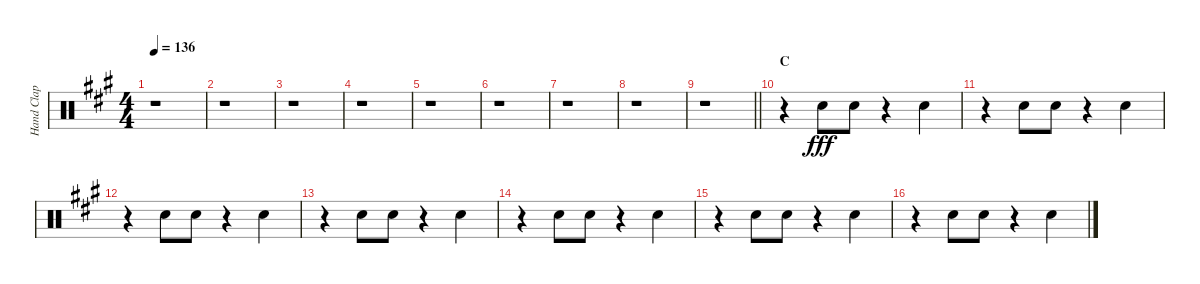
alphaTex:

\track ("Hand Clap" "Hand Clap") {instrument percussion}
\staff {score}
\articulation defaults
\ts (4 4)
\tempo 136
\clef neutral
\ks a
r.1{dy fff} |
r.1 |
r.1 |
r.1 |
r.1 |
r.1 |
r.1 |
r.1 |
\barLineRight lightlight
r.1 |
\section ("" "C")
r.4 "Hand Clap (hit)".8 "Hand Clap (hit)".8 r.4 "Hand Clap (hit)".4 |
r.4 "Hand Clap (hit)".8 "Hand Clap (hit)".8 r.4 "Hand Clap (hit)".4 |
r.4 "Hand Clap (hit)".8 "Hand Clap (hit)".8 r.4 "Hand Clap (hit)".4 |
r.4 "Hand Clap (hit)".8 "Hand Clap (hit)".8 r.4 "Hand Clap (hit)".4 |
r.4 "Hand Clap (hit)".8 "Hand Clap (hit)".8 r.4 "Hand Clap (hit)".4 |
r.4 "Hand Clap (hit)".8 "Hand Clap (hit)".8 r.4 "Hand Clap (hit)".4 |
r.4 "Hand Clap (hit)".8 "Hand Clap (hit)".8 r.4 "Hand Clap (hit)".4
